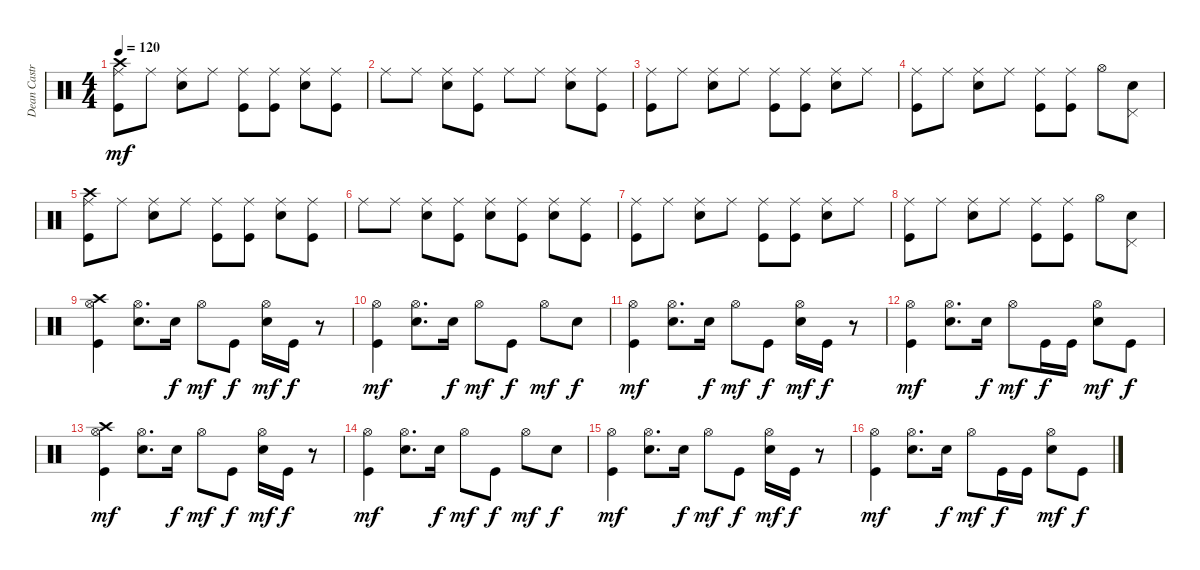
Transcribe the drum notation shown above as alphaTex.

\track ("Dean Castronova" "Dean Castr") {instrument percussion}
\staff {score}
\articulation defaults
\ts (4 4)
\tempo 120
\clef neutral
\ks c
("Crash high (hit)" "Ride (middle)" "Kick (hit)").8{dy mf} "Ride (middle)".8 ("Ride (middle)" "Electric Snare (hit)").8 "Ride (middle)".8 ("Ride (middle)" "Kick (hit)").8 ("Ride (middle)" "Kick (hit)").8 ("Ride (middle)" "Electric Snare (hit)").8 ("Ride (middle)" "Kick (hit)").8 |
"Ride (middle)".8 "Ride (middle)".8 ("Ride (middle)" "Electric Snare (hit)").8 ("Ride (middle)" "Kick (hit)").8 "Ride (middle)".8 "Ride (middle)".8 ("Ride (middle)" "Electric Snare (hit)").8 ("Ride (middle)" "Kick (hit)").8 |
("Ride (middle)" "Kick (hit)").8 "Ride (middle)".8 ("Ride (middle)" "Electric Snare (hit)").8 "Ride (middle)".8 ("Ride (middle)" "Kick (hit)").8 ("Ride (middle)" "Kick (hit)").8 ("Ride (middle)" "Electric Snare (hit)").8 "Ride (middle)".8 |
("Ride (middle)" "Kick (hit)").8 "Ride (middle)".8 ("Ride (middle)" "Electric Snare (hit)").8 "Ride (middle)".8 ("Ride (middle)" "Kick (hit)").8 ("Ride (middle)" "Kick (hit)").8 "Hi-Hat (open)".8 ("Pedal Hi-Hat (hit)" "Electric Snare (hit)").8 |
("Crash high (hit)" "Ride (middle)" "Kick (hit)").8 "Ride (middle)".8 ("Ride (middle)" "Electric Snare (hit)").8 "Ride (middle)".8 ("Ride (middle)" "Kick (hit)").8 ("Ride (middle)" "Kick (hit)").8 ("Ride (middle)" "Electric Snare (hit)").8 ("Ride (middle)" "Kick (hit)").8 |
"Ride (middle)".8 "Ride (middle)".8 ("Ride (middle)" "Electric Snare (hit)").8 ("Ride (middle)" "Kick (hit)").8 ("Ride (middle)" "Electric Snare (hit)").8 ("Ride (middle)" "Kick (hit)").8 ("Ride (middle)" "Electric Snare (hit)").8 ("Ride (middle)" "Kick (hit)").8 |
("Ride (middle)" "Kick (hit)").8 "Ride (middle)".8 ("Ride (middle)" "Electric Snare (hit)").8 "Ride (middle)".8 ("Ride (middle)" "Kick (hit)").8 ("Ride (middle)" "Kick (hit)").8 ("Ride (middle)" "Electric Snare (hit)").8 "Ride (middle)".8 |
("Ride (middle)" "Kick (hit)").8 "Ride (middle)".8 ("Ride (middle)" "Electric Snare (hit)").8 "Ride (middle)".8 ("Ride (middle)" "Kick (hit)").8 ("Ride (middle)" "Kick (hit)").8 "Hi-Hat (open)".8 ("Pedal Hi-Hat (hit)" "Electric Snare (hit)").8 |
("Crash high (hit)" "Hi-Hat (open)" "Kick (hit)").4 ("Hi-Hat (open)" "Electric Snare (hit)").8{d} "Electric Snare (hit)".16{dy f} "Hi-Hat (open)".8{dy mf} "Kick (hit)".8{dy f} ("Hi-Hat (open)" "Electric Snare (hit)").16{dy mf} "Kick (hit)".16{dy f} r.8 |
("Hi-Hat (open)" "Kick (hit)").4{dy mf} ("Hi-Hat (open)" "Electric Snare (hit)").8{d} "Electric Snare (hit)".16{dy f} "Hi-Hat (open)".8{dy mf} "Kick (hit)".8{dy f} "Hi-Hat (open)".8{dy mf} "Electric Snare (hit)".8{dy f} |
("Hi-Hat (open)" "Kick (hit)").4{dy mf} ("Hi-Hat (open)" "Electric Snare (hit)").8{d} "Electric Snare (hit)".16{dy f} "Hi-Hat (open)".8{dy mf} "Kick (hit)".8{dy f} ("Hi-Hat (open)" "Electric Snare (hit)").16{dy mf} "Kick (hit)".16{dy f} r.8 |
("Hi-Hat (open)" "Kick (hit)").4{dy mf} ("Hi-Hat (open)" "Electric Snare (hit)").8{d} "Electric Snare (hit)".16{dy f} "Hi-Hat (open)".8{dy mf} "Kick (hit)".16{dy f} "Kick (hit)".16 ("Hi-Hat (open)" "Electric Snare (hit)").8{dy mf} "Kick (hit)".8{dy f} |
("Crash high (hit)" "Hi-Hat (open)" "Kick (hit)").4{dy mf} ("Hi-Hat (open)" "Electric Snare (hit)").8{d} "Electric Snare (hit)".16{dy f} "Hi-Hat (open)".8{dy mf} "Kick (hit)".8{dy f} ("Hi-Hat (open)" "Electric Snare (hit)").16{dy mf} "Kick (hit)".16{dy f} r.8 |
("Hi-Hat (open)" "Kick (hit)").4{dy mf} ("Hi-Hat (open)" "Electric Snare (hit)").8{d} "Electric Snare (hit)".16{dy f} "Hi-Hat (open)".8{dy mf} "Kick (hit)".8{dy f} "Hi-Hat (open)".8{dy mf} "Electric Snare (hit)".8{dy f} |
("Hi-Hat (open)" "Kick (hit)").4{dy mf} ("Hi-Hat (open)" "Electric Snare (hit)").8{d} "Electric Snare (hit)".16{dy f} "Hi-Hat (open)".8{dy mf} "Kick (hit)".8{dy f} ("Hi-Hat (open)" "Electric Snare (hit)").16{dy mf} "Kick (hit)".16{dy f} r.8 |
("Hi-Hat (open)" "Kick (hit)").4{dy mf} ("Hi-Hat (open)" "Electric Snare (hit)").8{d} "Electric Snare (hit)".16{dy f} "Hi-Hat (open)".8{dy mf} "Kick (hit)".16{dy f} "Kick (hit)".16 ("Hi-Hat (open)" "Electric Snare (hit)").8{dy mf} "Kick (hit)".8{dy f}
